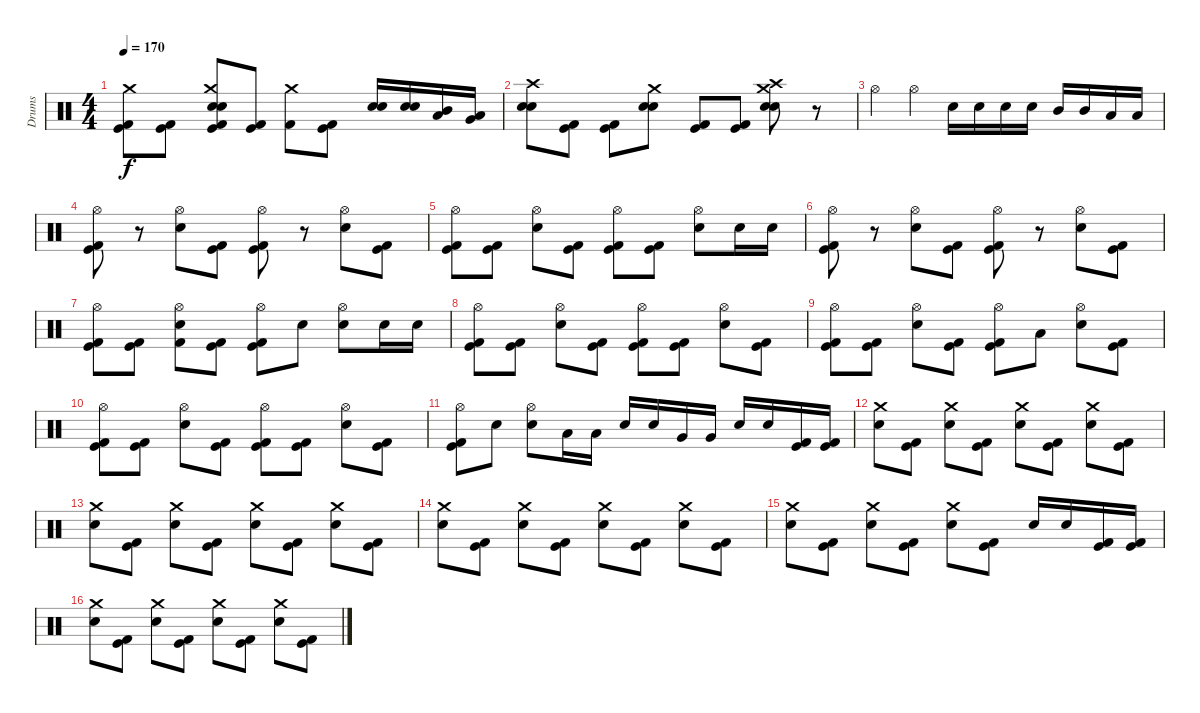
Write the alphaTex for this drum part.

\track ("Drums" "Drums") {instrument percussion}
\staff {score}
\articulation defaults
\ts (4 4)
\tempo 170
\clef neutral
\ks c
("Kick (hit) 2" "Kick (hit)" "Crash medium (hit)").8{dy f} ("Kick (hit) 2" "Kick (hit)").8 ("Snare (hit) 2" "Electric Snare (hit)" "Kick (hit) 2" "Kick (hit)" "Crash medium (hit)").8 ("Kick (hit) 2" "Kick (hit)").8 ("Kick (hit) 2" "Crash medium (hit)").8 ("Kick (hit) 2" "Kick (hit)").8 ("Electric Snare (hit)" "Snare (hit) 2").16 ("Electric Snare (hit)" "Snare (hit) 2").16 ("Mid Tom (hit)" "Low Tom (hit)").16 ("Low Tom (hit)" "Very Low Tom (hit)").16 |
("Crash high (hit)" "Electric Snare (hit)" "Snare (hit) 2").8 ("Kick (hit)" "Kick (hit) 2").8 ("Kick (hit)" "Kick (hit) 2").8 ("Crash medium (hit)" "Electric Snare (hit)" "Snare (hit) 2").8 ("Kick (hit)" "Kick (hit) 2").8 ("Kick (hit)" "Kick (hit) 2").8 ("Crash high (hit)" "Crash medium (hit)" "Electric Snare (hit)" "Snare (hit) 2").8 r.8 |
"Hi-Hat (open)".4 "Hi-Hat (open)".4 "Electric Snare (hit)".16 "Electric Snare (hit)".16 "Electric Snare (hit)".16 "Electric Snare (hit)".16 "Mid Tom (hit)".16 "Mid Tom (hit)".16 "Low Tom (hit)".16 "Low Tom (hit)".16 |
("Kick (hit) 2" "Kick (hit)" "Hi-Hat (open)").8 r.8 ("Snare (hit) 2" "Hi-Hat (open)").8 ("Kick (hit) 2" "Kick (hit)").8 ("Kick (hit) 2" "Kick (hit)" "Hi-Hat (open)").8 r.8 ("Snare (hit) 2" "Hi-Hat (open)").8 ("Kick (hit) 2" "Kick (hit)").8 |
("Kick (hit) 2" "Kick (hit)" "Hi-Hat (open)").8 ("Kick (hit) 2" "Kick (hit)").8 ("Snare (hit) 2" "Hi-Hat (open)").8 ("Kick (hit) 2" "Kick (hit)").8 ("Kick (hit) 2" "Kick (hit)" "Hi-Hat (open)").8 ("Kick (hit) 2" "Kick (hit)").8 ("Snare (hit) 2" "Hi-Hat (open)").8 "Snare (hit) 2".16 "Snare (hit) 2".16 |
("Kick (hit) 2" "Kick (hit)" "Hi-Hat (open)").8 r.8 ("Snare (hit) 2" "Hi-Hat (open)").8 ("Kick (hit) 2" "Kick (hit)").8 ("Kick (hit) 2" "Kick (hit)" "Hi-Hat (open)").8 r.8 ("Snare (hit) 2" "Hi-Hat (open)").8 ("Kick (hit) 2" "Kick (hit)").8 |
("Kick (hit) 2" "Kick (hit)" "Hi-Hat (open)").8 ("Kick (hit) 2" "Kick (hit)").8 ("Kick (hit) 2" "Snare (hit) 2" "Hi-Hat (open)").8 ("Kick (hit) 2" "Kick (hit)").8 ("Kick (hit) 2" "Kick (hit)" "Hi-Hat (open)").8 "Snare (hit) 2".8 ("Snare (hit) 2" "Hi-Hat (open)").8 "Snare (hit) 2".16 "Snare (hit) 2".16 |
("Kick (hit) 2" "Kick (hit)" "Hi-Hat (open)").8 ("Kick (hit) 2" "Kick (hit)").8 ("Snare (hit) 2" "Hi-Hat (open)").8 ("Kick (hit) 2" "Kick (hit)").8 ("Kick (hit) 2" "Kick (hit)" "Hi-Hat (open)").8 ("Kick (hit) 2" "Kick (hit)").8 ("Snare (hit) 2" "Hi-Hat (open)").8 ("Kick (hit) 2" "Kick (hit)").8 |
("Kick (hit) 2" "Kick (hit)" "Hi-Hat (open)").8 ("Kick (hit) 2" "Kick (hit)").8 ("Snare (hit) 2" "Hi-Hat (open)").8 ("Kick (hit) 2" "Kick (hit)").8 ("Kick (hit) 2" "Kick (hit)" "Hi-Hat (open)").8 "Low Tom (hit)".8 ("Snare (hit) 2" "Hi-Hat (open)").8 ("Kick (hit) 2" "Kick (hit)").8 |
("Kick (hit) 2" "Kick (hit)" "Hi-Hat (open)").8 ("Kick (hit) 2" "Kick (hit)").8 ("Snare (hit) 2" "Hi-Hat (open)").8 ("Kick (hit) 2" "Kick (hit)").8 ("Kick (hit) 2" "Kick (hit)" "Hi-Hat (open)").8 ("Kick (hit) 2" "Kick (hit)").8 ("Snare (hit) 2" "Hi-Hat (open)").8 ("Kick (hit) 2" "Kick (hit)").8 |
("Kick (hit) 2" "Kick (hit)" "Hi-Hat (open)").8 "Snare (hit) 2".8 ("Hi-Hat (open)" "Snare (hit) 2").8 "Low Tom (hit)".16 "Low Tom (hit)".16 "Snare (hit) 2".16 "Snare (hit) 2".16 "Very Low Tom (hit)".16 "Very Low Tom (hit)".16 "Snare (hit) 2".16 "Snare (hit) 2".16 ("Kick (hit) 2" "Kick (hit)").16 ("Kick (hit) 2" "Kick (hit)").16 |
("Snare (hit) 2" "Crash medium (hit)").8 ("Kick (hit) 2" "Kick (hit)").8 ("Snare (hit) 2" "Crash medium (hit)").8 ("Kick (hit) 2" "Kick (hit)").8 ("Snare (hit) 2" "Crash medium (hit)").8 ("Kick (hit) 2" "Kick (hit)").8 ("Snare (hit) 2" "Crash medium (hit)").8 ("Kick (hit) 2" "Kick (hit)").8 |
("Snare (hit) 2" "Crash medium (hit)").8 ("Kick (hit) 2" "Kick (hit)").8 ("Snare (hit) 2" "Crash medium (hit)").8 ("Kick (hit) 2" "Kick (hit)").8 ("Snare (hit) 2" "Crash medium (hit)").8 ("Kick (hit) 2" "Kick (hit)").8 ("Snare (hit) 2" "Crash medium (hit)").8 ("Kick (hit) 2" "Kick (hit)").8 |
("Snare (hit) 2" "Crash medium (hit)").8 ("Kick (hit) 2" "Kick (hit)").8 ("Snare (hit) 2" "Crash medium (hit)").8 ("Kick (hit) 2" "Kick (hit)").8 ("Snare (hit) 2" "Crash medium (hit)").8 ("Kick (hit) 2" "Kick (hit)").8 ("Snare (hit) 2" "Crash medium (hit)").8 ("Kick (hit) 2" "Kick (hit)").8 |
("Snare (hit) 2" "Crash medium (hit)").8 ("Kick (hit) 2" "Kick (hit)").8 ("Snare (hit) 2" "Crash medium (hit)").8 ("Kick (hit) 2" "Kick (hit)").8 ("Snare (hit) 2" "Crash medium (hit)").8 ("Kick (hit) 2" "Kick (hit)").8 "Snare (hit) 2".16 "Snare (hit) 2".16 ("Kick (hit) 2" "Kick (hit)").16 ("Kick (hit) 2" "Kick (hit)").16 |
("Snare (hit) 2" "Crash medium (hit)").8 ("Kick (hit) 2" "Kick (hit)").8 ("Snare (hit) 2" "Crash medium (hit)").8 ("Kick (hit) 2" "Kick (hit)").8 ("Snare (hit) 2" "Crash medium (hit)").8 ("Kick (hit) 2" "Kick (hit)").8 ("Snare (hit) 2" "Crash medium (hit)").8 ("Kick (hit) 2" "Kick (hit)").8
